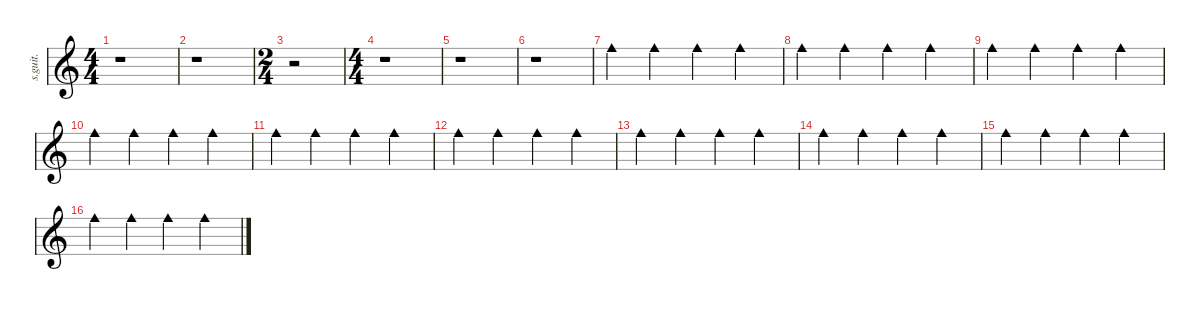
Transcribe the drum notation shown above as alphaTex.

\defaultSystemsLayout 4
\hideDynamics
\bracketExtendMode nobrackets
\track ("Cowbell" "s.guit.") {instrument percussion}
\staff {score}
\articulation defaults
\ts (4 4)
\tempo (107 hide)
\clef g2
\ks c
r.1{dy mp} |
r.1 |
\ts (2 4)
\beaming (8 2 2 2 2)
r.2 |
\ts (4 4)
\beaming (8 2 2 2 2)
r.1 |
r.1 |
r.1 |
"Cowbell medium (hit)".4 "Cowbell medium (hit)".4 "Cowbell medium (hit)".4 "Cowbell medium (hit)".4 |
"Cowbell medium (hit)".4 "Cowbell medium (hit)".4 "Cowbell medium (hit)".4 "Cowbell medium (hit)".4 |
"Cowbell medium (hit)".4 "Cowbell medium (hit)".4 "Cowbell medium (hit)".4 "Cowbell medium (hit)".4 |
"Cowbell medium (hit)".4 "Cowbell medium (hit)".4 "Cowbell medium (hit)".4 "Cowbell medium (hit)".4 |
"Cowbell medium (hit)".4 "Cowbell medium (hit)".4 "Cowbell medium (hit)".4 "Cowbell medium (hit)".4 |
"Cowbell medium (hit)".4 "Cowbell medium (hit)".4 "Cowbell medium (hit)".4 "Cowbell medium (hit)".4 |
"Cowbell medium (hit)".4 "Cowbell medium (hit)".4 "Cowbell medium (hit)".4 "Cowbell medium (hit)".4 |
"Cowbell medium (hit)".4 "Cowbell medium (hit)".4 "Cowbell medium (hit)".4 "Cowbell medium (hit)".4 |
"Cowbell medium (hit)".4 "Cowbell medium (hit)".4 "Cowbell medium (hit)".4 "Cowbell medium (hit)".4 |
"Cowbell medium (hit)".4 "Cowbell medium (hit)".4 "Cowbell medium (hit)".4 "Cowbell medium (hit)".4
